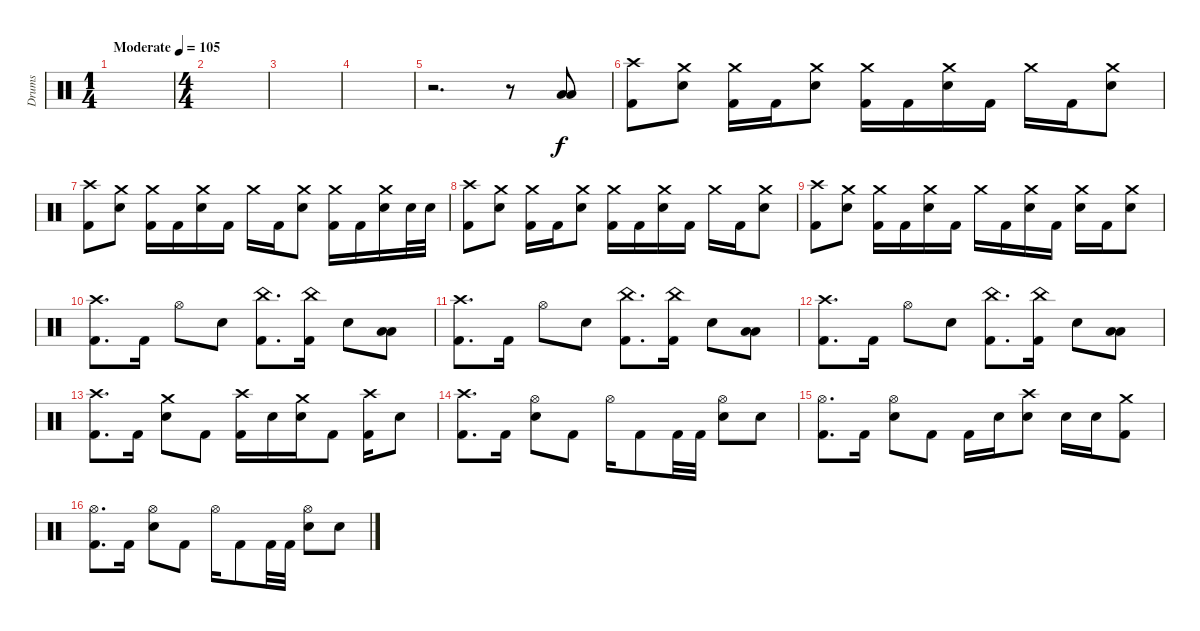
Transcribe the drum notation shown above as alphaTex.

\track ("Drums" "Drums") {instrument percussion}
\staff {score}
\articulation defaults
\ts (1 4)
\tempo (105 "Moderate")
\clef neutral
\ks c
|
\ts (4 4)
|
|
|
r.2{d} r.8 ("Low Floor Tom (hit)" "Low Floor Tom (hit)").8{bd 480} |
("Crash high (hit)" "Kick (hit) 2").8 ("Crash medium (hit)" "Electric Snare (hit)").8 ("Crash medium (hit)" "Kick (hit) 2").16 "Kick (hit) 2".16 ("Crash medium (hit)" "Electric Snare (hit)").8 ("Crash medium (hit)" "Kick (hit) 2").16 "Kick (hit) 2".16 ("Crash medium (hit)" "Electric Snare (hit)").16 "Kick (hit) 2".16 "Crash medium (hit)".16 "Kick (hit) 2".16 ("Crash medium (hit)" "Electric Snare (hit)").8 |
("Crash high (hit)" "Kick (hit) 2").8 ("Crash medium (hit)" "Electric Snare (hit)").8 ("Crash medium (hit)" "Kick (hit) 2").16 "Kick (hit) 2".16 ("Crash medium (hit)" "Electric Snare (hit)").16 "Kick (hit) 2".16 "Crash medium (hit)".16 "Kick (hit) 2".16 ("Crash medium (hit)" "Electric Snare (hit)").8 ("Crash medium (hit)" "Kick (hit) 2").16 "Kick (hit) 2".16 ("Crash medium (hit)" "Electric Snare (hit)").16 "Electric Snare (hit)".32 "Electric Snare (hit)".32 |
("Crash high (hit)" "Kick (hit) 2").8 ("Crash medium (hit)" "Electric Snare (hit)").8 ("Crash medium (hit)" "Kick (hit) 2").16 "Kick (hit) 2".16 ("Crash medium (hit)" "Electric Snare (hit)").8 ("Crash medium (hit)" "Kick (hit) 2").16 "Kick (hit) 2".16 ("Crash medium (hit)" "Electric Snare (hit)").16 "Kick (hit) 2".16 "Crash medium (hit)".16 "Kick (hit) 2".16 ("Crash medium (hit)" "Electric Snare (hit)").8 |
("Crash high (hit)" "Kick (hit) 2").8 ("Crash medium (hit)" "Electric Snare (hit)").8 ("Crash medium (hit)" "Kick (hit) 2").16 "Kick (hit) 2".16 ("Crash medium (hit)" "Electric Snare (hit)").16 "Kick (hit) 2".16 "Crash medium (hit)".16 "Kick (hit) 2".16 ("Crash medium (hit)" "Electric Snare (hit)").16 "Kick (hit) 2".16 ("Crash medium (hit)" "Electric Snare (hit)").16 "Kick (hit) 2".16 ("Crash medium (hit)" "Electric Snare (hit)").8 |
("Crash high (hit)" "Kick (hit) 2").8{d} "Kick (hit) 2".16 "Hi-Hat (open)".8 "Electric Snare (hit)".8 ("China (hit)" "Kick (hit) 2").8{d} ("China (hit)" "Kick (hit) 2").16 "Electric Snare (hit)".8 ("Low Tom (hit)" "Low Floor Tom (hit)").8{bd 480} |
("Crash high (hit)" "Kick (hit) 2").8{d} "Kick (hit) 2".16 "Hi-Hat (open)".8 "Electric Snare (hit)".8 ("China (hit)" "Kick (hit) 2").8{d} ("China (hit)" "Kick (hit) 2").16 "Electric Snare (hit)".8 ("Low Tom (hit)" "Low Floor Tom (hit)").8{bd 480} |
("Crash high (hit)" "Kick (hit) 2").8{d} "Kick (hit) 2".16 "Hi-Hat (open)".8 "Electric Snare (hit)".8 ("China (hit)" "Kick (hit) 2").8{d} ("China (hit)" "Kick (hit) 2").16 "Electric Snare (hit)".8 ("Low Tom (hit)" "Low Floor Tom (hit)").8{bd 480} |
("Crash high (hit)" "Kick (hit) 2").8{d} "Kick (hit) 2".16 ("Crash medium (hit)" "Electric Snare (hit)").8 "Kick (hit) 2".8 ("Crash high (hit)" "Kick (hit) 2").16 "Electric Snare (hit)".16 ("Crash medium (hit)" "Electric Snare (hit)").16 "Kick (hit) 2".8 ("Crash high (hit)" "Kick (hit) 2").16 "Electric Snare (hit)".8 |
("Crash high (hit)" "Kick (hit) 2").8{d} "Kick (hit) 2".16 ("Hi-Hat (open)" "Electric Snare (hit)").8 "Kick (hit) 2".8 "Hi-Hat (open)".16 "Kick (hit) 2".8 "Kick (hit) 2".32 "Kick (hit) 2".32 ("Hi-Hat (open)" "Electric Snare (hit)").8 "Electric Snare (hit)".8 |
("Hi-Hat (open)" "Kick (hit) 2").8{d} "Kick (hit) 2".16 ("Hi-Hat (open)" "Electric Snare (hit)").8 "Kick (hit) 2".8 "Kick (hit) 2".16 "Electric Snare (hit)".16 ("Crash high (hit)" "Electric Snare (hit)").8 "Electric Snare (hit)".16 "Electric Snare (hit)".16 ("Crash medium (hit)" "Kick (hit) 2").8 |
("Hi-Hat (open)" "Kick (hit) 2").8{d} "Kick (hit) 2".16 ("Hi-Hat (open)" "Electric Snare (hit)").8 "Kick (hit) 2".8 "Hi-Hat (open)".16 "Kick (hit) 2".8 "Kick (hit) 2".32 "Kick (hit) 2".32 ("Hi-Hat (open)" "Electric Snare (hit)").8 "Electric Snare (hit)".8
